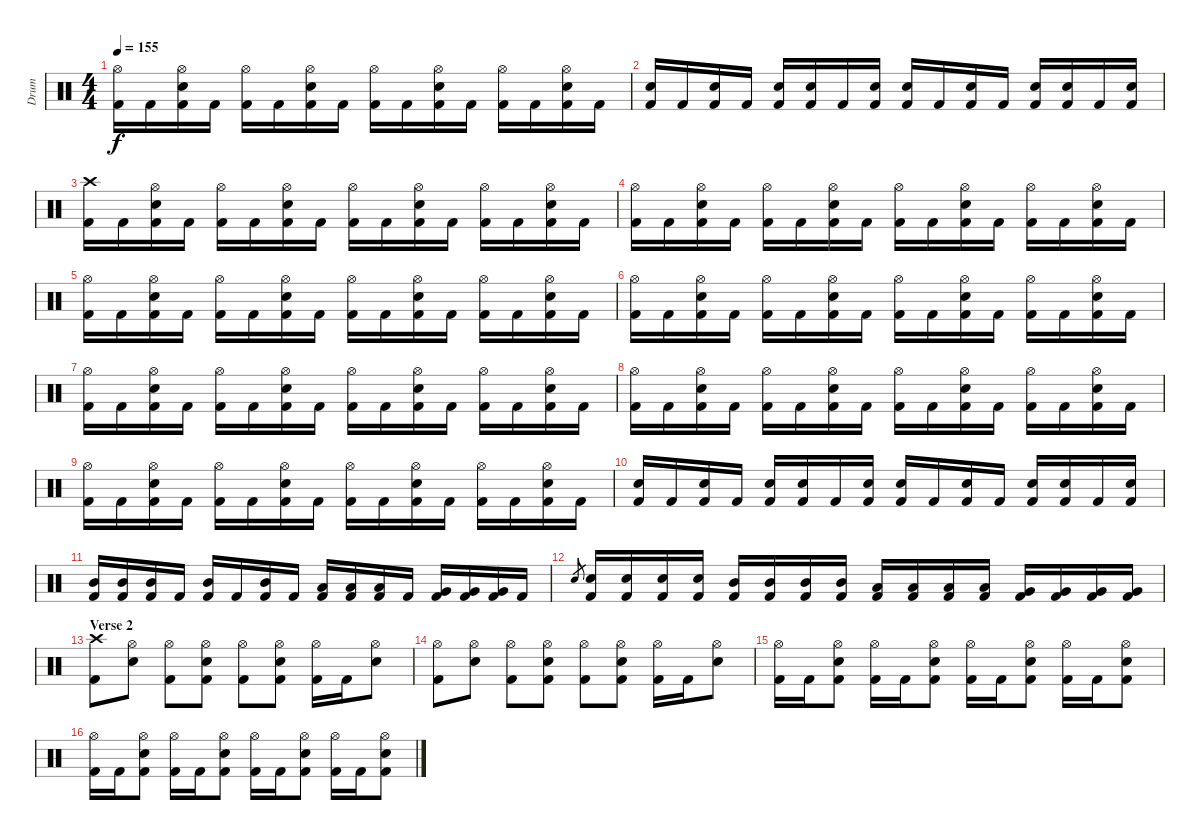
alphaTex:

\track ("Drum" "Drum") {instrument percussion}
\staff {score}
\articulation defaults
\ts (4 4)
\tempo 155
\clef neutral
\ks c
("Hi-Hat (open)" "Kick (hit) 2").16{dy f} "Kick (hit) 2".16 ("Hi-Hat (open)" "Electric Snare (hit)" "Kick (hit) 2").16 "Kick (hit) 2".16 ("Hi-Hat (open)" "Kick (hit) 2").16 "Kick (hit) 2".16 ("Hi-Hat (open)" "Electric Snare (hit)" "Kick (hit) 2").16 "Kick (hit) 2".16 ("Hi-Hat (open)" "Kick (hit) 2").16 "Kick (hit) 2".16 ("Hi-Hat (open)" "Electric Snare (hit)" "Kick (hit) 2").16 "Kick (hit) 2".16 ("Hi-Hat (open)" "Kick (hit) 2").16 "Kick (hit) 2".16 ("Hi-Hat (open)" "Electric Snare (hit)" "Kick (hit) 2").16 "Kick (hit) 2".16 |
("Electric Snare (hit)" "Kick (hit) 2").16 "Kick (hit) 2".16 ("Electric Snare (hit)" "Kick (hit) 2").16 "Kick (hit) 2".16 ("Electric Snare (hit)" "Kick (hit) 2").16 ("Electric Snare (hit)" "Kick (hit) 2").16 "Kick (hit) 2".16 ("Electric Snare (hit)" "Kick (hit) 2").16 ("Electric Snare (hit)" "Kick (hit) 2").16 "Kick (hit) 2".16 ("Electric Snare (hit)" "Kick (hit) 2").16 "Kick (hit) 2".16 ("Electric Snare (hit)" "Kick (hit) 2").16 ("Electric Snare (hit)" "Kick (hit) 2").16 "Kick (hit) 2".16 ("Electric Snare (hit)" "Kick (hit) 2").16 |
("Crash high (hit)" "Kick (hit) 2").16 "Kick (hit) 2".16 ("Hi-Hat (open)" "Electric Snare (hit)" "Kick (hit) 2").16 "Kick (hit) 2".16 ("Hi-Hat (open)" "Kick (hit) 2").16 "Kick (hit) 2".16 ("Hi-Hat (open)" "Electric Snare (hit)" "Kick (hit) 2").16 "Kick (hit) 2".16 ("Hi-Hat (open)" "Kick (hit) 2").16 "Kick (hit) 2".16 ("Hi-Hat (open)" "Electric Snare (hit)" "Kick (hit) 2").16 "Kick (hit) 2".16 ("Hi-Hat (open)" "Kick (hit) 2").16 "Kick (hit) 2".16 ("Hi-Hat (open)" "Electric Snare (hit)" "Kick (hit) 2").16 "Kick (hit) 2".16 |
("Hi-Hat (open)" "Kick (hit) 2").16 "Kick (hit) 2".16 ("Hi-Hat (open)" "Electric Snare (hit)" "Kick (hit) 2").16 "Kick (hit) 2".16 ("Hi-Hat (open)" "Kick (hit) 2").16 "Kick (hit) 2".16 ("Hi-Hat (open)" "Electric Snare (hit)" "Kick (hit) 2").16 "Kick (hit) 2".16 ("Hi-Hat (open)" "Kick (hit) 2").16 "Kick (hit) 2".16 ("Hi-Hat (open)" "Electric Snare (hit)" "Kick (hit) 2").16 "Kick (hit) 2".16 ("Hi-Hat (open)" "Kick (hit) 2").16 "Kick (hit) 2".16 ("Hi-Hat (open)" "Electric Snare (hit)" "Kick (hit) 2").16 "Kick (hit) 2".16 |
("Hi-Hat (open)" "Kick (hit) 2").16 "Kick (hit) 2".16 ("Hi-Hat (open)" "Electric Snare (hit)" "Kick (hit) 2").16 "Kick (hit) 2".16 ("Hi-Hat (open)" "Kick (hit) 2").16 "Kick (hit) 2".16 ("Hi-Hat (open)" "Electric Snare (hit)" "Kick (hit) 2").16 "Kick (hit) 2".16 ("Hi-Hat (open)" "Kick (hit) 2").16 "Kick (hit) 2".16 ("Hi-Hat (open)" "Electric Snare (hit)" "Kick (hit) 2").16 "Kick (hit) 2".16 ("Hi-Hat (open)" "Kick (hit) 2").16 "Kick (hit) 2".16 ("Hi-Hat (open)" "Electric Snare (hit)" "Kick (hit) 2").16 "Kick (hit) 2".16 |
("Hi-Hat (open)" "Kick (hit) 2").16 "Kick (hit) 2".16 ("Hi-Hat (open)" "Electric Snare (hit)" "Kick (hit) 2").16 "Kick (hit) 2".16 ("Hi-Hat (open)" "Kick (hit) 2").16 "Kick (hit) 2".16 ("Hi-Hat (open)" "Electric Snare (hit)" "Kick (hit) 2").16 "Kick (hit) 2".16 ("Hi-Hat (open)" "Kick (hit) 2").16 "Kick (hit) 2".16 ("Hi-Hat (open)" "Electric Snare (hit)" "Kick (hit) 2").16 "Kick (hit) 2".16 ("Hi-Hat (open)" "Kick (hit) 2").16 "Kick (hit) 2".16 ("Hi-Hat (open)" "Electric Snare (hit)" "Kick (hit) 2").16 "Kick (hit) 2".16 |
("Hi-Hat (open)" "Kick (hit) 2").16 "Kick (hit) 2".16 ("Hi-Hat (open)" "Electric Snare (hit)" "Kick (hit) 2").16 "Kick (hit) 2".16 ("Hi-Hat (open)" "Kick (hit) 2").16 "Kick (hit) 2".16 ("Hi-Hat (open)" "Electric Snare (hit)" "Kick (hit) 2").16 "Kick (hit) 2".16 ("Hi-Hat (open)" "Kick (hit) 2").16 "Kick (hit) 2".16 ("Hi-Hat (open)" "Electric Snare (hit)" "Kick (hit) 2").16 "Kick (hit) 2".16 ("Hi-Hat (open)" "Kick (hit) 2").16 "Kick (hit) 2".16 ("Hi-Hat (open)" "Electric Snare (hit)" "Kick (hit) 2").16 "Kick (hit) 2".16 |
("Hi-Hat (open)" "Kick (hit) 2").16 "Kick (hit) 2".16 ("Hi-Hat (open)" "Electric Snare (hit)" "Kick (hit) 2").16 "Kick (hit) 2".16 ("Hi-Hat (open)" "Kick (hit) 2").16 "Kick (hit) 2".16 ("Hi-Hat (open)" "Electric Snare (hit)" "Kick (hit) 2").16 "Kick (hit) 2".16 ("Hi-Hat (open)" "Kick (hit) 2").16 "Kick (hit) 2".16 ("Hi-Hat (open)" "Electric Snare (hit)" "Kick (hit) 2").16 "Kick (hit) 2".16 ("Hi-Hat (open)" "Kick (hit) 2").16 "Kick (hit) 2".16 ("Hi-Hat (open)" "Electric Snare (hit)" "Kick (hit) 2").16 "Kick (hit) 2".16 |
("Hi-Hat (open)" "Kick (hit) 2").16 "Kick (hit) 2".16 ("Hi-Hat (open)" "Electric Snare (hit)" "Kick (hit) 2").16 "Kick (hit) 2".16 ("Hi-Hat (open)" "Kick (hit) 2").16 "Kick (hit) 2".16 ("Hi-Hat (open)" "Electric Snare (hit)" "Kick (hit) 2").16 "Kick (hit) 2".16 ("Hi-Hat (open)" "Kick (hit) 2").16 "Kick (hit) 2".16 ("Hi-Hat (open)" "Electric Snare (hit)" "Kick (hit) 2").16 "Kick (hit) 2".16 ("Hi-Hat (open)" "Kick (hit) 2").16 "Kick (hit) 2".16 ("Hi-Hat (open)" "Electric Snare (hit)" "Kick (hit) 2").16 "Kick (hit) 2".16 |
("Electric Snare (hit)" "Kick (hit) 2").16 "Kick (hit) 2".16 ("Electric Snare (hit)" "Kick (hit) 2").16 "Kick (hit) 2".16 ("Electric Snare (hit)" "Kick (hit) 2").16 ("Electric Snare (hit)" "Kick (hit) 2").16 "Kick (hit) 2".16 ("Electric Snare (hit)" "Kick (hit) 2").16 ("Electric Snare (hit)" "Kick (hit) 2").16 "Kick (hit) 2".16 ("Electric Snare (hit)" "Kick (hit) 2").16 "Kick (hit) 2".16 ("Electric Snare (hit)" "Kick (hit) 2").16 ("Electric Snare (hit)" "Kick (hit) 2").16 "Kick (hit) 2".16 ("Electric Snare (hit)" "Kick (hit) 2").16 |
("Mid Tom (hit)" "Kick (hit) 2").16 ("Mid Tom (hit)" "Kick (hit) 2").16 ("Mid Tom (hit)" "Kick (hit) 2").16 "Kick (hit) 2".16 ("Mid Tom (hit)" "Kick (hit) 2").16 "Kick (hit) 2".16 ("Mid Tom (hit)" "Kick (hit) 2").16 "Kick (hit) 2".16 ("Low Tom (hit)" "Kick (hit) 2").16 ("Low Tom (hit)" "Kick (hit) 2").16 ("Low Tom (hit)" "Kick (hit) 2").16 "Kick (hit) 2".16 ("Very Low Tom (hit)" "Kick (hit) 2").16 ("Very Low Tom (hit)" "Kick (hit) 2").16 ("Very Low Tom (hit)" "Kick (hit) 2").16 "Kick (hit) 2".16 |
"Electric Snare (hit)".8{gr} ("Electric Snare (hit)" "Kick (hit) 2").16 ("Electric Snare (hit)" "Kick (hit) 2").16 ("Electric Snare (hit)" "Kick (hit) 2").16 ("Electric Snare (hit)" "Kick (hit) 2").16 ("Mid Tom (hit)" "Kick (hit) 2").16 ("Mid Tom (hit)" "Kick (hit) 2").16 ("Mid Tom (hit)" "Kick (hit) 2").16 ("Mid Tom (hit)" "Kick (hit) 2").16 ("Low Tom (hit)" "Kick (hit) 2").16 ("Low Tom (hit)" "Kick (hit) 2").16 ("Low Tom (hit)" "Kick (hit) 2").16 ("Low Tom (hit)" "Kick (hit) 2").16 ("Very Low Tom (hit)" "Kick (hit) 2").16 ("Very Low Tom (hit)" "Kick (hit) 2").16 ("Very Low Tom (hit)" "Kick (hit) 2").16 ("Very Low Tom (hit)" "Kick (hit) 2").16 |
\section ("" "Verse 2")
("Crash high (hit)" "Kick (hit) 2").8 ("Hi-Hat (open)" "Electric Snare (hit)").8 ("Hi-Hat (open)" "Kick (hit) 2").8 ("Hi-Hat (open)" "Electric Snare (hit)" "Kick (hit) 2").8 ("Hi-Hat (open)" "Kick (hit) 2").8 ("Hi-Hat (open)" "Electric Snare (hit)" "Kick (hit) 2").8 ("Hi-Hat (open)" "Kick (hit) 2").16 "Kick (hit) 2".16 ("Hi-Hat (open)" "Electric Snare (hit)").8 |
("Hi-Hat (open)" "Kick (hit) 2").8 ("Hi-Hat (open)" "Electric Snare (hit)").8 ("Hi-Hat (open)" "Kick (hit) 2").8 ("Hi-Hat (open)" "Electric Snare (hit)" "Kick (hit) 2").8 ("Hi-Hat (open)" "Kick (hit) 2").8 ("Hi-Hat (open)" "Electric Snare (hit)" "Kick (hit) 2").8 ("Hi-Hat (open)" "Kick (hit) 2").16 "Kick (hit) 2".16 ("Hi-Hat (open)" "Electric Snare (hit)").8 |
("Hi-Hat (open)" "Kick (hit) 2").16 "Kick (hit) 2".16 ("Hi-Hat (open)" "Electric Snare (hit)" "Kick (hit) 2").8 ("Hi-Hat (open)" "Kick (hit) 2").16 "Kick (hit) 2".16 ("Hi-Hat (open)" "Electric Snare (hit)" "Kick (hit) 2").8 ("Hi-Hat (open)" "Kick (hit) 2").16 "Kick (hit) 2".16 ("Hi-Hat (open)" "Electric Snare (hit)" "Kick (hit) 2").8 ("Hi-Hat (open)" "Kick (hit) 2").16 "Kick (hit) 2".16 ("Hi-Hat (open)" "Electric Snare (hit)" "Kick (hit) 2").8 |
("Hi-Hat (open)" "Kick (hit) 2").16 "Kick (hit) 2".16 ("Hi-Hat (open)" "Electric Snare (hit)" "Kick (hit) 2").8 ("Hi-Hat (open)" "Kick (hit) 2").16 "Kick (hit) 2".16 ("Hi-Hat (open)" "Electric Snare (hit)" "Kick (hit) 2").8 ("Hi-Hat (open)" "Kick (hit) 2").16 "Kick (hit) 2".16 ("Hi-Hat (open)" "Electric Snare (hit)" "Kick (hit) 2").8 ("Hi-Hat (open)" "Kick (hit) 2").16 "Kick (hit) 2".16 ("Hi-Hat (open)" "Electric Snare (hit)" "Kick (hit) 2").8
